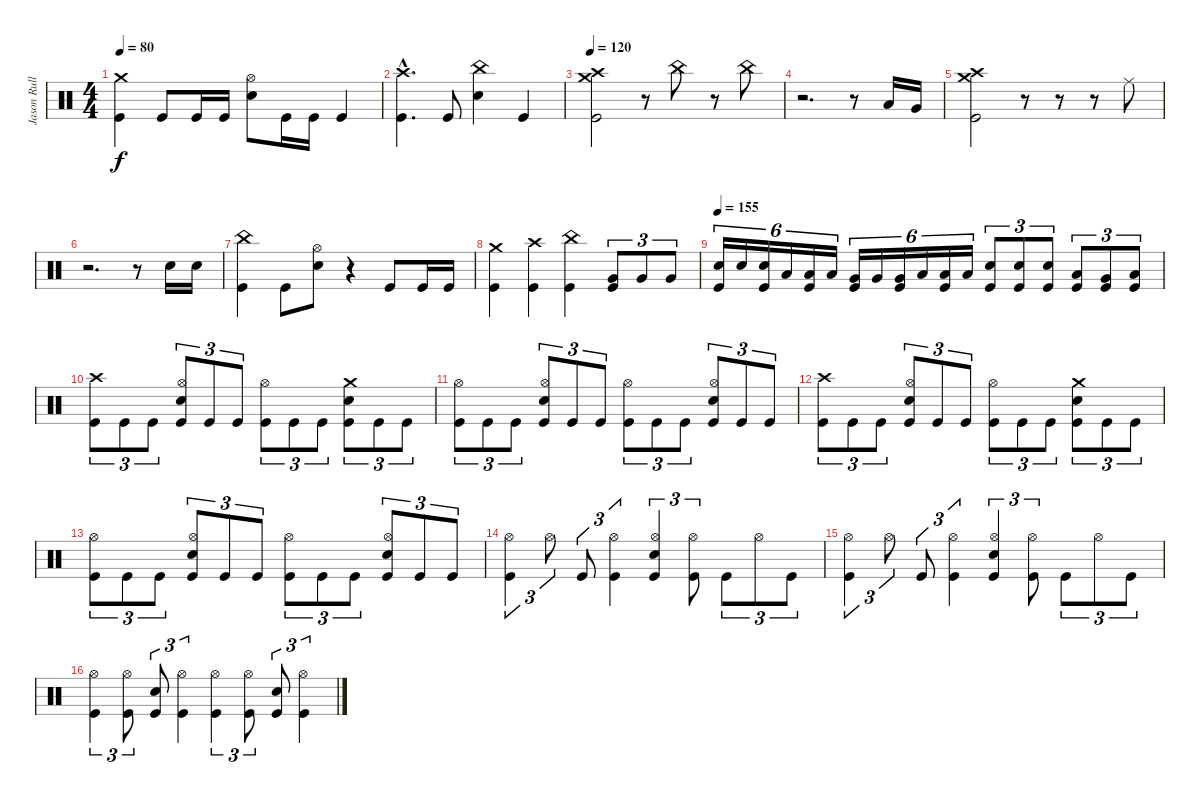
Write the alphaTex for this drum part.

\track ("Jason Rullo - BATTERIE" "Jason Rull") {instrument percussion}
\staff {score}
\articulation defaults
\ts (4 4)
\tempo 80
\clef neutral
\ks c
("Crash medium (hit)" "Kick (hit)").4{dy f} "Kick (hit)".8 "Kick (hit)".16 "Kick (hit)".16 ("Hi-Hat (open)" "Snare (hit) 2").8 "Kick (hit)".16 "Kick (hit)".16 "Kick (hit)".4 |
("Crash high (hit)"{hac} "Kick (hit)"{hac}).4{d} "Kick (hit)".8 ("China (hit)" "Snare (hit) 2").4 "Kick (hit)".4 |
\tempo 120
("Crash medium (hit)" "Crash high (hit)" "Kick (hit)").2 r.8 "China (hit)".8 r.8 "China (hit)".8 |
r.2{d} r.8 "Low Tom (hit)".16 "Very Low Tom (hit)".16 |
("Crash medium (hit)" "Crash high (hit)" "Kick (hit)").2 r.8 r.8 r.8 "Ride (middle)".8 |
r.2{d} r.8 "Snare (hit) 2".16 "Snare (hit) 2".16 |
("China (hit)" "Kick (hit)").4 "Kick (hit)".8 ("Hi-Hat (open)" "Snare (hit) 2").8 r.4 "Kick (hit)".8 "Kick (hit)".16 "Kick (hit)".16 |
("Crash medium (hit)" "Kick (hit)").4 ("Crash high (hit)" "Kick (hit)").4 ("China (hit)" "Kick (hit)").4 ("Very Low Tom (hit)" "Kick (hit)").8{tu (3 2)} "Very Low Tom (hit)".8{tu (3 2)} "Very Low Tom (hit)".8{tu (3 2)} |
\tempo 155
("Snare (hit) 2" "Kick (hit)").16{tu (6 4)} "Snare (hit) 2".16{tu (6 4)} ("Snare (hit) 2" "Kick (hit)").16{tu (6 4)} "Low Tom (hit)".16{tu (6 4)} ("Low Tom (hit)" "Kick (hit)").16{tu (6 4)} "Low Tom (hit)".16{tu (6 4)} ("Very Low Tom (hit)" "Kick (hit)").16{tu (6 4)} "Very Low Tom (hit)".16{tu (6 4)} ("Very Low Tom (hit)" "Kick (hit)").16{tu (6 4)} "Low Floor Tom (hit)".16{tu (6 4)} ("Low Floor Tom (hit)" "Kick (hit)").16{tu (6 4)} "Low Floor Tom (hit)".16{tu (6 4)} ("Snare (hit) 2" "Kick (hit)").8{tu (3 2)} ("Snare (hit) 2" "Kick (hit)").8{tu (3 2)} ("Snare (hit) 2" "Kick (hit)").8{tu (3 2)} ("Low Tom (hit)" "Kick (hit)").8{tu (3 2)} ("Very Low Tom (hit)" "Kick (hit)").8{tu (3 2)} ("Low Floor Tom (hit)" "Kick (hit)").8{tu (3 2)} |
("Crash high (hit)" "Kick (hit)").8{tu (3 2)} "Kick (hit)".8{tu (3 2)} "Kick (hit)".8{tu (3 2)} ("Hi-Hat (open)" "Snare (hit) 2" "Kick (hit)").8{tu (3 2)} "Kick (hit)".8{tu (3 2)} "Kick (hit)".8{tu (3 2)} ("Hi-Hat (open)" "Kick (hit)").8{tu (3 2)} "Kick (hit)".8{tu (3 2)} "Kick (hit)".8{tu (3 2)} ("Crash medium (hit)" "Snare (hit) 2" "Kick (hit)").8{tu (3 2)} "Kick (hit)".8{tu (3 2)} "Kick (hit)".8{tu (3 2)} |
("Hi-Hat (open)" "Kick (hit)").8{tu (3 2)} "Kick (hit)".8{tu (3 2)} "Kick (hit)".8{tu (3 2)} ("Hi-Hat (open)" "Snare (hit) 2" "Kick (hit)").8{tu (3 2)} "Kick (hit)".8{tu (3 2)} "Kick (hit)".8{tu (3 2)} ("Hi-Hat (open)" "Kick (hit)").8{tu (3 2)} "Kick (hit)".8{tu (3 2)} "Kick (hit)".8{tu (3 2)} ("Hi-Hat (open)" "Snare (hit) 2" "Kick (hit)").8{tu (3 2)} "Kick (hit)".8{tu (3 2)} "Kick (hit)".8{tu (3 2)} |
("Crash high (hit)" "Kick (hit)").8{tu (3 2)} "Kick (hit)".8{tu (3 2)} "Kick (hit)".8{tu (3 2)} ("Hi-Hat (open)" "Snare (hit) 2" "Kick (hit)").8{tu (3 2)} "Kick (hit)".8{tu (3 2)} "Kick (hit)".8{tu (3 2)} ("Hi-Hat (open)" "Kick (hit)").8{tu (3 2)} "Kick (hit)".8{tu (3 2)} "Kick (hit)".8{tu (3 2)} ("Crash medium (hit)" "Snare (hit) 2" "Kick (hit)").8{tu (3 2)} "Kick (hit)".8{tu (3 2)} "Kick (hit)".8{tu (3 2)} |
("Hi-Hat (open)" "Kick (hit)").8{tu (3 2)} "Kick (hit)".8{tu (3 2)} "Kick (hit)".8{tu (3 2)} ("Hi-Hat (open)" "Snare (hit) 2" "Kick (hit)").8{tu (3 2)} "Kick (hit)".8{tu (3 2)} "Kick (hit)".8{tu (3 2)} ("Hi-Hat (open)" "Kick (hit)").8{tu (3 2)} "Kick (hit)".8{tu (3 2)} "Kick (hit)".8{tu (3 2)} ("Hi-Hat (open)" "Snare (hit) 2" "Kick (hit)").8{tu (3 2)} "Kick (hit)".8{tu (3 2)} "Kick (hit)".8{tu (3 2)} |
("Hi-Hat (open)" "Kick (hit)").4{tu (3 2)} "Hi-Hat (open)".8{tu (3 2)} "Kick (hit)".8{tu (3 2)} ("Hi-Hat (open)" "Kick (hit)").4{tu (3 2)} ("Hi-Hat (open)" "Snare (hit) 2" "Kick (hit)").4{tu (3 2)} ("Hi-Hat (open)" "Kick (hit)").8{tu (3 2)} "Kick (hit)".8{tu (3 2)} "Hi-Hat (open)".8{tu (3 2)} "Kick (hit)".8{tu (3 2)} |
("Hi-Hat (open)" "Kick (hit)").4{tu (3 2)} "Hi-Hat (open)".8{tu (3 2)} "Kick (hit)".8{tu (3 2)} ("Hi-Hat (open)" "Kick (hit)").4{tu (3 2)} ("Hi-Hat (open)" "Snare (hit) 2" "Kick (hit)").4{tu (3 2)} ("Hi-Hat (open)" "Kick (hit)").8{tu (3 2)} "Kick (hit)".8{tu (3 2)} "Hi-Hat (open)".8{tu (3 2)} "Kick (hit)".8{tu (3 2)} |
("Hi-Hat (open)" "Kick (hit)").4{tu (3 2)} ("Hi-Hat (open)" "Kick (hit)").8{tu (3 2)} ("Snare (hit) 2" "Kick (hit)").8{tu (3 2)} ("Hi-Hat (open)" "Kick (hit)").4{tu (3 2)} ("Hi-Hat (open)" "Kick (hit)").4{tu (3 2)} ("Hi-Hat (open)" "Kick (hit)").8{tu (3 2)} ("Snare (hit) 2" "Kick (hit)").8{tu (3 2)} ("Hi-Hat (open)" "Kick (hit)").4{tu (3 2)}
